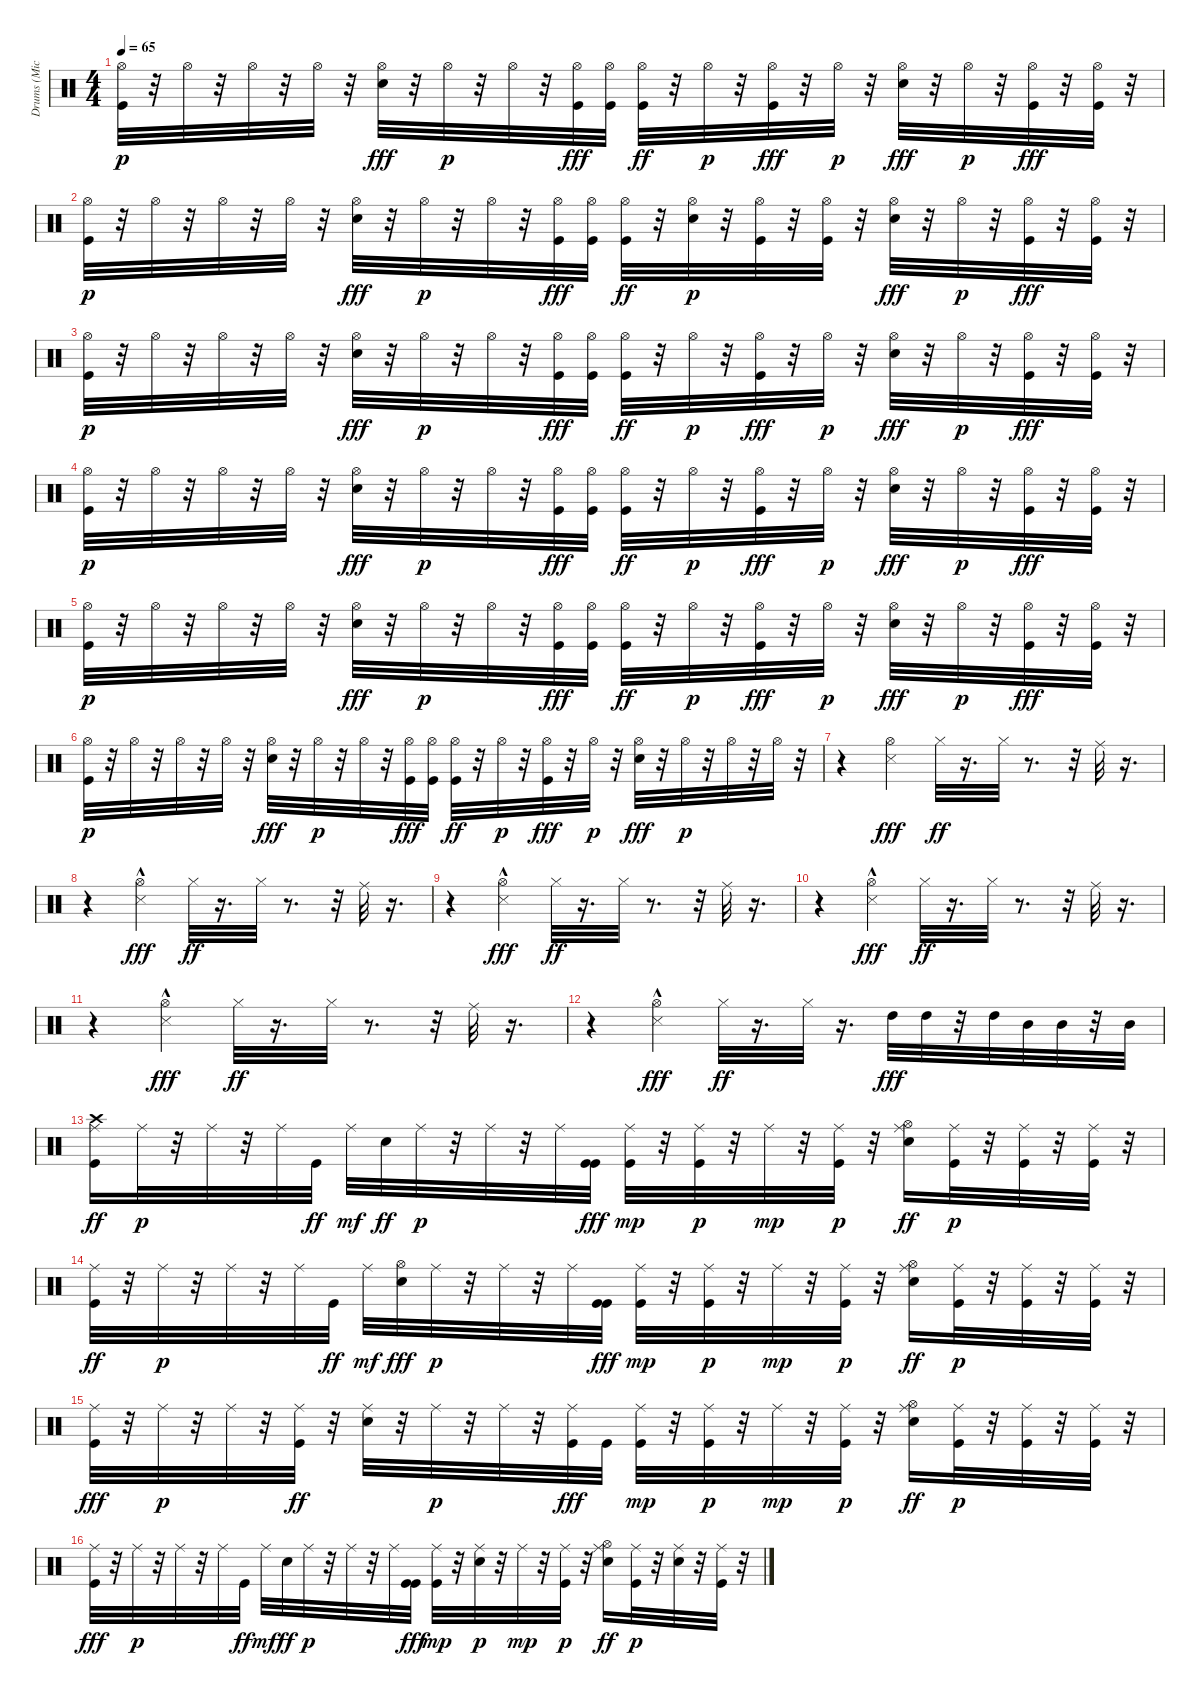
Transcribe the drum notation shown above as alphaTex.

\track ("Drums (Michael Giles)" "Drums (Mic") {instrument percussion}
\staff {score}
\articulation defaults
\ts (4 4)
\tempo 65
\clef neutral
\ks c
("Kick (hit)" "Hi-Hat (open)").32{dy p} r.32 "Hi-Hat (open)".32 r.32 "Hi-Hat (open)".32 r.32 "Hi-Hat (open)".32 r.32 ("Hi-Hat (open)" "Snare (hit) 2").32{dy fff} r.32 "Hi-Hat (open)".32{dy p} r.32 "Hi-Hat (open)".32 r.32 ("Hi-Hat (open)" "Kick (hit)").32{dy fff} ("Hi-Hat (open)" "Kick (hit)").32 ("Hi-Hat (open)" "Kick (hit)").32{dy ff} r.32 "Hi-Hat (open)".32{dy p} r.32 ("Hi-Hat (open)" "Kick (hit)").32{dy fff} r.32 "Hi-Hat (open)".32{dy p} r.32 ("Hi-Hat (open)" "Snare (hit) 2").32{dy fff} r.32 "Hi-Hat (open)".32{dy p} r.32 ("Hi-Hat (open)" "Kick (hit)").32{dy fff} r.32 ("Hi-Hat (open)" "Kick (hit)").32 r.32 |
("Kick (hit)" "Hi-Hat (open)").32{dy p} r.32 "Hi-Hat (open)".32 r.32 "Hi-Hat (open)".32 r.32 "Hi-Hat (open)".32 r.32 ("Hi-Hat (open)" "Snare (hit) 2").32{dy fff} r.32 "Hi-Hat (open)".32{dy p} r.32 "Hi-Hat (open)".32 r.32 ("Hi-Hat (open)" "Kick (hit)").32{dy fff} ("Hi-Hat (open)" "Kick (hit)").32 ("Hi-Hat (open)" "Kick (hit)").32{dy ff} r.32 ("Snare (hit) 2" "Hi-Hat (open)").32{dy p} r.32 ("Kick (hit)" "Hi-Hat (open)").32 r.32 ("Kick (hit)" "Hi-Hat (open)").32 r.32 ("Hi-Hat (open)" "Snare (hit) 2").32{dy fff} r.32 "Hi-Hat (open)".32{dy p} r.32 ("Hi-Hat (open)" "Kick (hit)").32{dy fff} r.32 ("Hi-Hat (open)" "Kick (hit)").32 r.32 |
("Kick (hit)" "Hi-Hat (open)").32{dy p} r.32 "Hi-Hat (open)".32 r.32 "Hi-Hat (open)".32 r.32 "Hi-Hat (open)".32 r.32 ("Hi-Hat (open)" "Snare (hit) 2").32{dy fff} r.32 "Hi-Hat (open)".32{dy p} r.32 "Hi-Hat (open)".32 r.32 ("Hi-Hat (open)" "Kick (hit)").32{dy fff} ("Hi-Hat (open)" "Kick (hit)").32 ("Hi-Hat (open)" "Kick (hit)").32{dy ff} r.32 "Hi-Hat (open)".32{dy p} r.32 ("Hi-Hat (open)" "Kick (hit)").32{dy fff} r.32 "Hi-Hat (open)".32{dy p} r.32 ("Hi-Hat (open)" "Snare (hit) 2").32{dy fff} r.32 "Hi-Hat (open)".32{dy p} r.32 ("Hi-Hat (open)" "Kick (hit)").32{dy fff} r.32 ("Hi-Hat (open)" "Kick (hit)").32 r.32 |
("Kick (hit)" "Hi-Hat (open)").32{dy p} r.32 "Hi-Hat (open)".32 r.32 "Hi-Hat (open)".32 r.32 "Hi-Hat (open)".32 r.32 ("Hi-Hat (open)" "Snare (hit) 2").32{dy fff} r.32 "Hi-Hat (open)".32{dy p} r.32 "Hi-Hat (open)".32 r.32 ("Hi-Hat (open)" "Kick (hit)").32{dy fff} ("Hi-Hat (open)" "Kick (hit)").32 ("Hi-Hat (open)" "Kick (hit)").32{dy ff} r.32 "Hi-Hat (open)".32{dy p} r.32 ("Hi-Hat (open)" "Kick (hit)").32{dy fff} r.32 "Hi-Hat (open)".32{dy p} r.32 ("Hi-Hat (open)" "Snare (hit) 2").32{dy fff} r.32 "Hi-Hat (open)".32{dy p} r.32 ("Hi-Hat (open)" "Kick (hit)").32{dy fff} r.32 ("Hi-Hat (open)" "Kick (hit)").32 r.32 |
("Kick (hit)" "Hi-Hat (open)").32{dy p} r.32 "Hi-Hat (open)".32 r.32 "Hi-Hat (open)".32 r.32 "Hi-Hat (open)".32 r.32 ("Hi-Hat (open)" "Snare (hit) 2").32{dy fff} r.32 "Hi-Hat (open)".32{dy p} r.32 "Hi-Hat (open)".32 r.32 ("Hi-Hat (open)" "Kick (hit)").32{dy fff} ("Hi-Hat (open)" "Kick (hit)").32 ("Hi-Hat (open)" "Kick (hit)").32{dy ff} r.32 "Hi-Hat (open)".32{dy p} r.32 ("Hi-Hat (open)" "Kick (hit)").32{dy fff} r.32 "Hi-Hat (open)".32{dy p} r.32 ("Hi-Hat (open)" "Snare (hit) 2").32{dy fff} r.32 "Hi-Hat (open)".32{dy p} r.32 ("Hi-Hat (open)" "Kick (hit)").32{dy fff} r.32 ("Hi-Hat (open)" "Kick (hit)").32 r.32 |
("Kick (hit)" "Hi-Hat (open)").32{dy p} r.32 "Hi-Hat (open)".32 r.32 "Hi-Hat (open)".32 r.32 "Hi-Hat (open)".32 r.32 ("Hi-Hat (open)" "Snare (hit) 2").32{dy fff} r.32 "Hi-Hat (open)".32{dy p} r.32 "Hi-Hat (open)".32 r.32 ("Hi-Hat (open)" "Kick (hit)").32{dy fff} ("Hi-Hat (open)" "Kick (hit)").32 ("Hi-Hat (open)" "Kick (hit)").32{dy ff} r.32 "Hi-Hat (open)".32{dy p} r.32 ("Hi-Hat (open)" "Kick (hit)").32{dy fff} r.32 "Hi-Hat (open)".32{dy p} r.32 ("Hi-Hat (open)" "Snare (hit) 2").32{dy fff} r.32 "Hi-Hat (open)".32{dy p} r.32 "Hi-Hat (open)".32 r.32 "Hi-Hat (open)".32 r.32 |
r.4 ("Hi-Hat (open)" "Metronome (hit)").4{dy fff} "Hi-Hat (closed)".32{dy ff} r.16{d} "Hi-Hat (closed)".32 r.8{d} r.32 "Ride (middle)".32 r.16{d} |
r.4 ("Metronome (hit)"{hac} "Hi-Hat (open)").4{dy fff} "Hi-Hat (closed)".32{dy ff} r.16{d} "Hi-Hat (closed)".32 r.8{d} r.32 "Ride (middle)".32 r.16{d} |
r.4 ("Metronome (hit)"{hac} "Hi-Hat (open)").4{dy fff} "Hi-Hat (closed)".32{dy ff} r.16{d} "Hi-Hat (closed)".32 r.8{d} r.32 "Ride (middle)".32 r.16{d} |
r.4 ("Metronome (hit)"{hac} "Hi-Hat (open)").4{dy fff} "Hi-Hat (closed)".32{dy ff} r.16{d} "Hi-Hat (closed)".32 r.8{d} r.32 "Ride (middle)".32 r.16{d} |
r.4 ("Metronome (hit)"{hac} "Hi-Hat (open)").4{dy fff} "Hi-Hat (closed)".32{dy ff} r.16{d} "Hi-Hat (closed)".32 r.8{d} r.32 "Ride (middle)".32 r.16{d} |
r.4 ("Metronome (hit)"{hac} "Hi-Hat (open)").4{dy fff} "Hi-Hat (closed)".32{dy ff} r.16{d} "Hi-Hat (closed)".32 r.16{d} "High Tom (hit)".32{dy fff} "High Tom (hit)".32 r.32 "High Tom (hit)".32 "Mid Tom (hit)".32 "Mid Tom (hit)".32 r.32 "Mid Tom (hit)".32 |
("Ride (middle)" "Kick (hit)" "Crash high (hit)").16{dy ff} "Ride (middle)".32{dy p} r.32 "Ride (middle)".32 r.32 "Ride (middle)".32 "Kick (hit)".32{dy ff} "Ride (middle)".32{dy mf} "Snare (hit) 2".32{dy ff} "Ride (middle)".32{dy p} r.32 "Ride (middle)".32 r.32 "Ride (middle)".32 ("Kick (hit)" "Kick (hit)").32{dy fff} ("Kick (hit)" "Ride (middle)").32{dy mp} r.32 ("Kick (hit)" "Ride (middle)").32{dy p} r.32 "Ride (middle)".32{dy mp} r.32 ("Ride (middle)" "Kick (hit)").32{dy p} r.32 ("Ride (middle)" "Hi-Hat (open)" "Snare (hit) 2").16{dy ff} ("Ride (middle)" "Kick (hit)").32{dy p} r.32 ("Ride (middle)" "Kick (hit)").32 r.32 ("Kick (hit)" "Ride (middle)").32 r.32 |
("Kick (hit)" "Ride (middle)").32{dy ff} r.32 "Ride (middle)".32{dy p} r.32 "Ride (middle)".32 r.32 "Ride (middle)".32 "Kick (hit)".32{dy ff} "Ride (middle)".32{dy mf} ("Snare (hit) 2" "Hi-Hat (open)").32{dy fff} "Ride (middle)".32{dy p} r.32 "Ride (middle)".32 r.32 "Ride (middle)".32 ("Kick (hit)" "Kick (hit)").32{dy fff} ("Kick (hit)" "Ride (middle)").32{dy mp} r.32 ("Kick (hit)" "Ride (middle)").32{dy p} r.32 "Ride (middle)".32{dy mp} r.32 ("Kick (hit)" "Ride (middle)").32{dy p} r.32 ("Hi-Hat (open)" "Ride (middle)" "Snare (hit) 2").16{dy ff} ("Ride (middle)" "Kick (hit)").32{dy p} r.32 ("Ride (middle)" "Kick (hit)").32 r.32 ("Kick (hit)" "Ride (middle)").32 r.32 |
("Ride (middle)" "Kick (hit)").32{dy fff} r.32 "Ride (middle)".32{dy p} r.32 "Ride (middle)".32 r.32 ("Ride (middle)" "Kick (hit)").32{dy ff} r.32 ("Ride (middle)" "Snare (hit) 2").32 r.32 "Ride (middle)".32{dy p} r.32 "Ride (middle)".32 r.32 ("Ride (middle)" "Kick (hit)").32{dy fff} "Kick (hit)".32 ("Kick (hit)" "Ride (middle)").32{dy mp} r.32 ("Kick (hit)" "Ride (middle)").32{dy p} r.32 "Ride (middle)".32{dy mp} r.32 ("Ride (middle)" "Kick (hit)").32{dy p} r.32 ("Ride (middle)" "Hi-Hat (open)" "Snare (hit) 2").16{dy ff} ("Ride (middle)" "Kick (hit)").32{dy p} r.32 ("Ride (middle)" "Kick (hit)").32 r.32 ("Kick (hit)" "Ride (middle)").32 r.32 |
("Ride (middle)" "Kick (hit)").32{dy fff} r.32 "Ride (middle)".32{dy p} r.32 "Ride (middle)".32 r.32 "Ride (middle)".32 "Kick (hit)".32{dy ff} "Ride (middle)".32{dy mf} "Snare (hit) 2".32{dy ff} "Ride (middle)".32{dy p} r.32 "Ride (middle)".32 r.32 "Ride (middle)".32 ("Kick (hit)" "Kick (hit)").32{dy fff} ("Kick (hit)" "Ride (middle)").32{dy mp} r.32 ("Snare (hit) 2" "Ride (middle)").32{dy p} r.32 "Ride (middle)".32{dy mp} r.32 ("Ride (middle)" "Kick (hit)").32{dy p} r.32 ("Ride (middle)" "Hi-Hat (open)" "Snare (hit) 2").16{dy ff} ("Ride (middle)" "Kick (hit)").32{dy p} r.32 ("Ride (middle)" "Snare (hit) 2").32 r.32 ("Kick (hit)" "Ride (middle)").32 r.32
